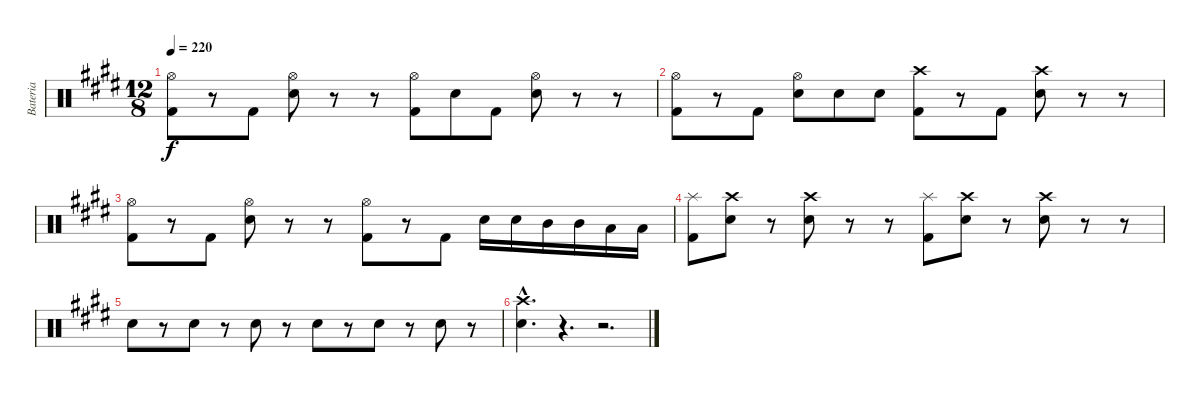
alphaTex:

\track ("Bateria" "Bateria") {instrument percussion}
\staff {score}
\articulation defaults
\ts (12 8)
\tempo 220
\clef neutral
\ks e
("Hi-Hat (open)" "Kick (hit) 2").8{dy f} r.8 "Kick (hit) 2".8 ("Hi-Hat (open)" "Electric Snare (hit)").8 r.8 r.8 ("Hi-Hat (open)" "Kick (hit) 2").8 "Electric Snare (hit)".8 "Kick (hit) 2".8 ("Hi-Hat (open)" "Electric Snare (hit)").8 r.8 r.8 |
("Hi-Hat (open)" "Kick (hit) 2").8 r.8 "Kick (hit) 2".8 ("Hi-Hat (open)" "Electric Snare (hit)").8 "Electric Snare (hit)".8 "Electric Snare (hit)".8 ("Crash high (hit)" "Kick (hit) 2").8 r.8 "Kick (hit) 2".8 ("Crash high (hit)" "Electric Snare (hit)").8 r.8 r.8 |
("Hi-Hat (open)" "Kick (hit) 2").8 r.8 "Kick (hit) 2".8 ("Hi-Hat (open)" "Electric Snare (hit)").8 r.8 r.8 ("Hi-Hat (open)" "Kick (hit) 2").8 r.8 "Kick (hit) 2".8 "Electric Snare (hit)".16 "Electric Snare (hit)".16 "Mid Tom (hit)".16 "Mid Tom (hit)".16 "Low Tom (hit)".16 "Low Tom (hit)".16 |
("Splash (hit)" "Kick (hit) 2").8 ("Crash high (hit)" "Electric Snare (hit)").8 r.8 ("Crash high (hit)" "Electric Snare (hit)").8 r.8 r.8 ("Splash (hit)" "Kick (hit) 2").8 ("Crash high (hit)" "Electric Snare (hit)").8 r.8 ("Crash high (hit)" "Electric Snare (hit)").8 r.8 r.8 |
"Electric Snare (hit)".8 r.8 "Electric Snare (hit)".8 r.8 "Electric Snare (hit)".8 r.8 "Electric Snare (hit)".8 r.8 "Electric Snare (hit)".8 r.8 "Electric Snare (hit)".8 r.8 |
("Crash high (hit)"{hac} "Electric Snare (hit)"{hac}).4{d} r.4{d} r.2{d}
